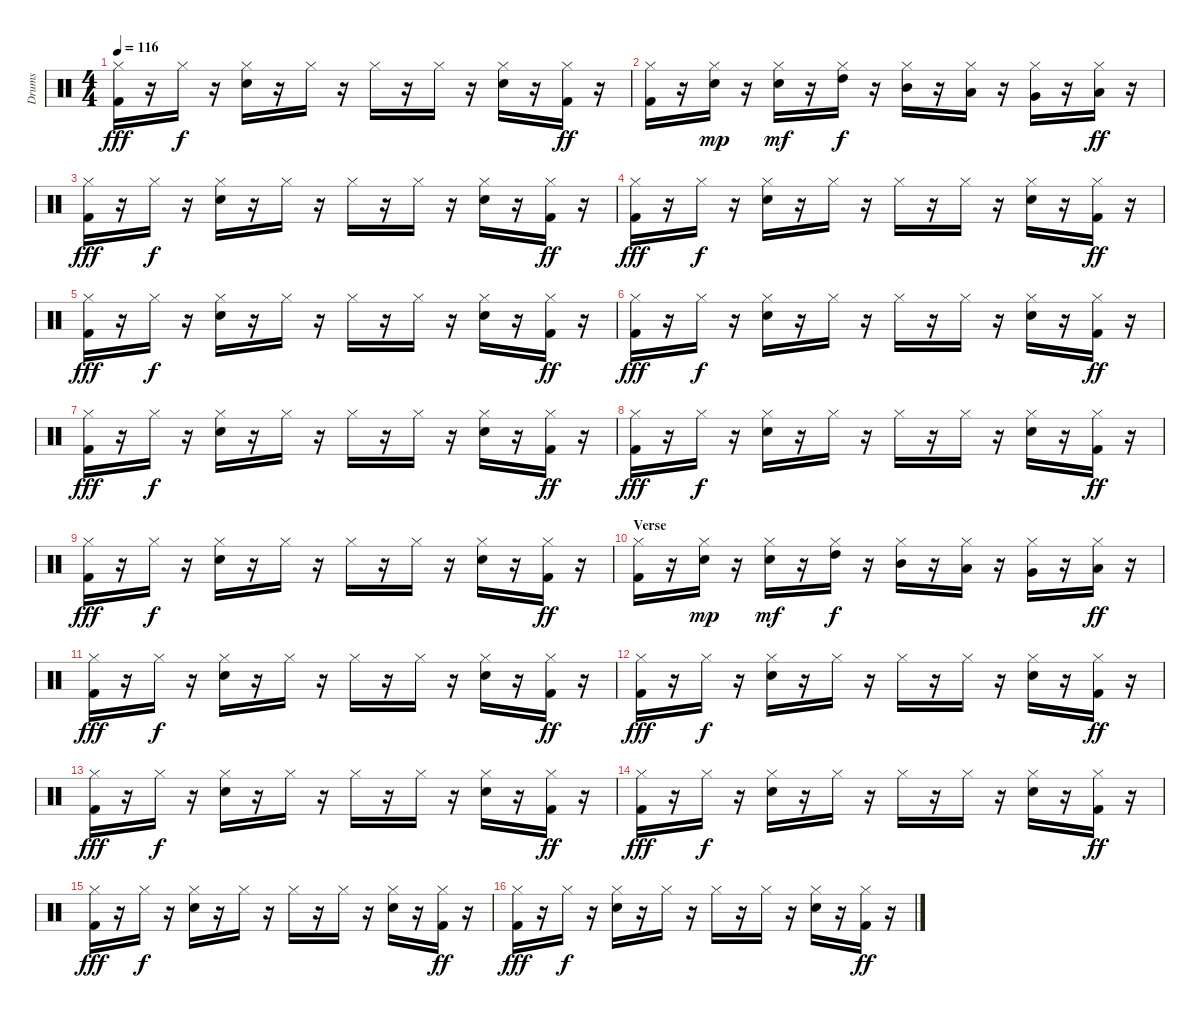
\track ("Drums" "Drums") {instrument percussion}
\staff {score}
\articulation defaults
\ts (4 4)
\tempo 116
\clef neutral
\ks c
("Hi-Hat (closed)" "Kick (hit) 2").16{dy fff} r.16 "Hi-Hat (closed)".16{dy f} r.16 ("Hi-Hat (closed)" "Electric Snare (hit)").16 r.16 "Hi-Hat (closed)".16 r.16 "Hi-Hat (closed)".16 r.16 "Hi-Hat (closed)".16 r.16 ("Hi-Hat (closed)" "Electric Snare (hit)").16 r.16 ("Hi-Hat (closed)" "Kick (hit) 2").16{dy ff} r.16 |
("Hi-Hat (closed)" "Kick (hit) 2").16 r.16 ("Hi-Hat (closed)" "Electric Snare (hit)").16{dy mp} r.16 ("Hi-Hat (closed)" "Snare (hit) 2").16{dy mf} r.16 ("Hi-Hat (closed)" "High Tom (hit)").16{dy f} r.16 ("Hi-Hat (closed)" "Mid Tom (hit)").16 r.16 ("Hi-Hat (closed)" "Low Tom (hit)").16 r.16 ("Hi-Hat (closed)" "Very Low Tom (hit)").16 r.16 ("Hi-Hat (closed)" "Low Floor Tom (hit)").16{dy ff} r.16 |
("Hi-Hat (closed)" "Kick (hit) 2").16{dy fff} r.16 "Hi-Hat (closed)".16{dy f} r.16 ("Hi-Hat (closed)" "Electric Snare (hit)").16 r.16 "Hi-Hat (closed)".16 r.16 "Hi-Hat (closed)".16 r.16 "Hi-Hat (closed)".16 r.16 ("Hi-Hat (closed)" "Electric Snare (hit)").16 r.16 ("Hi-Hat (closed)" "Kick (hit) 2").16{dy ff} r.16 |
("Hi-Hat (closed)" "Kick (hit) 2").16{dy fff} r.16 "Hi-Hat (closed)".16{dy f} r.16 ("Hi-Hat (closed)" "Electric Snare (hit)").16 r.16 "Hi-Hat (closed)".16 r.16 "Hi-Hat (closed)".16 r.16 "Hi-Hat (closed)".16 r.16 ("Hi-Hat (closed)" "Electric Snare (hit)").16 r.16 ("Hi-Hat (closed)" "Kick (hit) 2").16{dy ff} r.16 |
("Hi-Hat (closed)" "Kick (hit) 2").16{dy fff} r.16 "Hi-Hat (closed)".16{dy f} r.16 ("Hi-Hat (closed)" "Electric Snare (hit)").16 r.16 "Hi-Hat (closed)".16 r.16 "Hi-Hat (closed)".16 r.16 "Hi-Hat (closed)".16 r.16 ("Hi-Hat (closed)" "Electric Snare (hit)").16 r.16 ("Hi-Hat (closed)" "Kick (hit) 2").16{dy ff} r.16 |
("Hi-Hat (closed)" "Kick (hit) 2").16{dy fff} r.16 "Hi-Hat (closed)".16{dy f} r.16 ("Hi-Hat (closed)" "Electric Snare (hit)").16 r.16 "Hi-Hat (closed)".16 r.16 "Hi-Hat (closed)".16 r.16 "Hi-Hat (closed)".16 r.16 ("Hi-Hat (closed)" "Electric Snare (hit)").16 r.16 ("Hi-Hat (closed)" "Kick (hit) 2").16{dy ff} r.16 |
("Hi-Hat (closed)" "Kick (hit) 2").16{dy fff} r.16 "Hi-Hat (closed)".16{dy f} r.16 ("Hi-Hat (closed)" "Electric Snare (hit)").16 r.16 "Hi-Hat (closed)".16 r.16 "Hi-Hat (closed)".16 r.16 "Hi-Hat (closed)".16 r.16 ("Hi-Hat (closed)" "Electric Snare (hit)").16 r.16 ("Hi-Hat (closed)" "Kick (hit) 2").16{dy ff} r.16 |
("Hi-Hat (closed)" "Kick (hit) 2").16{dy fff} r.16 "Hi-Hat (closed)".16{dy f} r.16 ("Hi-Hat (closed)" "Electric Snare (hit)").16 r.16 "Hi-Hat (closed)".16 r.16 "Hi-Hat (closed)".16 r.16 "Hi-Hat (closed)".16 r.16 ("Hi-Hat (closed)" "Electric Snare (hit)").16 r.16 ("Hi-Hat (closed)" "Kick (hit) 2").16{dy ff} r.16 |
("Hi-Hat (closed)" "Kick (hit) 2").16{dy fff} r.16 "Hi-Hat (closed)".16{dy f} r.16 ("Hi-Hat (closed)" "Electric Snare (hit)").16 r.16 "Hi-Hat (closed)".16 r.16 "Hi-Hat (closed)".16 r.16 "Hi-Hat (closed)".16 r.16 ("Hi-Hat (closed)" "Electric Snare (hit)").16 r.16 ("Hi-Hat (closed)" "Kick (hit) 2").16{dy ff} r.16 |
\section ("" "Verse")
("Hi-Hat (closed)" "Kick (hit) 2").16 r.16 ("Hi-Hat (closed)" "Electric Snare (hit)").16{dy mp} r.16 ("Hi-Hat (closed)" "Snare (hit) 2").16{dy mf} r.16 ("Hi-Hat (closed)" "High Tom (hit)").16{dy f} r.16 ("Hi-Hat (closed)" "Mid Tom (hit)").16 r.16 ("Hi-Hat (closed)" "Low Tom (hit)").16 r.16 ("Hi-Hat (closed)" "Very Low Tom (hit)").16 r.16 ("Hi-Hat (closed)" "Low Floor Tom (hit)").16{dy ff} r.16 |
("Hi-Hat (closed)" "Kick (hit) 2").16{dy fff} r.16 "Hi-Hat (closed)".16{dy f} r.16 ("Hi-Hat (closed)" "Electric Snare (hit)").16 r.16 "Hi-Hat (closed)".16 r.16 "Hi-Hat (closed)".16 r.16 "Hi-Hat (closed)".16 r.16 ("Hi-Hat (closed)" "Electric Snare (hit)").16 r.16 ("Hi-Hat (closed)" "Kick (hit) 2").16{dy ff} r.16 |
("Hi-Hat (closed)" "Kick (hit) 2").16{dy fff} r.16 "Hi-Hat (closed)".16{dy f} r.16 ("Hi-Hat (closed)" "Electric Snare (hit)").16 r.16 "Hi-Hat (closed)".16 r.16 "Hi-Hat (closed)".16 r.16 "Hi-Hat (closed)".16 r.16 ("Hi-Hat (closed)" "Electric Snare (hit)").16 r.16 ("Hi-Hat (closed)" "Kick (hit) 2").16{dy ff} r.16 |
("Hi-Hat (closed)" "Kick (hit) 2").16{dy fff} r.16 "Hi-Hat (closed)".16{dy f} r.16 ("Hi-Hat (closed)" "Electric Snare (hit)").16 r.16 "Hi-Hat (closed)".16 r.16 "Hi-Hat (closed)".16 r.16 "Hi-Hat (closed)".16 r.16 ("Hi-Hat (closed)" "Electric Snare (hit)").16 r.16 ("Hi-Hat (closed)" "Kick (hit) 2").16{dy ff} r.16 |
("Hi-Hat (closed)" "Kick (hit) 2").16{dy fff} r.16 "Hi-Hat (closed)".16{dy f} r.16 ("Hi-Hat (closed)" "Electric Snare (hit)").16 r.16 "Hi-Hat (closed)".16 r.16 "Hi-Hat (closed)".16 r.16 "Hi-Hat (closed)".16 r.16 ("Hi-Hat (closed)" "Electric Snare (hit)").16 r.16 ("Hi-Hat (closed)" "Kick (hit) 2").16{dy ff} r.16 |
("Hi-Hat (closed)" "Kick (hit) 2").16{dy fff} r.16 "Hi-Hat (closed)".16{dy f} r.16 ("Hi-Hat (closed)" "Electric Snare (hit)").16 r.16 "Hi-Hat (closed)".16 r.16 "Hi-Hat (closed)".16 r.16 "Hi-Hat (closed)".16 r.16 ("Hi-Hat (closed)" "Electric Snare (hit)").16 r.16 ("Hi-Hat (closed)" "Kick (hit) 2").16{dy ff} r.16 |
("Hi-Hat (closed)" "Kick (hit) 2").16{dy fff} r.16 "Hi-Hat (closed)".16{dy f} r.16 ("Hi-Hat (closed)" "Electric Snare (hit)").16 r.16 "Hi-Hat (closed)".16 r.16 "Hi-Hat (closed)".16 r.16 "Hi-Hat (closed)".16 r.16 ("Hi-Hat (closed)" "Electric Snare (hit)").16 r.16 ("Hi-Hat (closed)" "Kick (hit) 2").16{dy ff} r.16
